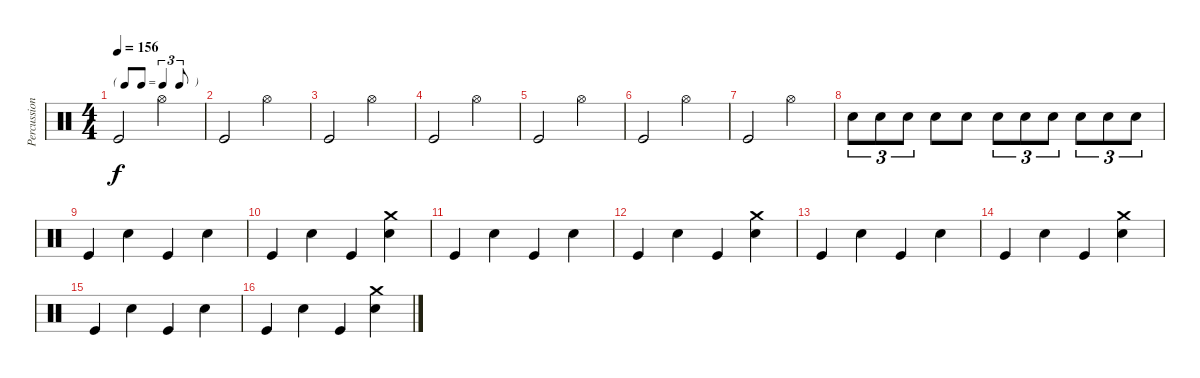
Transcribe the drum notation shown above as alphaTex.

\track ("Percussion" "Percussion") {instrument percussion}
\staff {score}
\articulation defaults
\ts (4 4)
\tf triplet8th
\tempo 156
\clef neutral
\ks c "Kick (hit)".2{dy f} "Hi-Hat (open)".2
|
"Kick (hit)".2 "Hi-Hat (open)".2 |
"Kick (hit)".2 "Hi-Hat (open)".2 |
"Kick (hit)".2 "Hi-Hat (open)".2 |
"Kick (hit)".2 "Hi-Hat (open)".2 |
"Kick (hit)".2 "Hi-Hat (open)".2 |
"Kick (hit)".2 "Hi-Hat (open)".2 |
"Snare (hit) 2".8{tu (3 2)} "Snare (hit) 2".8{tu (3 2)} "Snare (hit) 2".8{tu (3 2)} "Snare (hit) 2".8 "Snare (hit) 2".8 "Snare (hit) 2".8{tu (3 2)} "Snare (hit) 2".8{tu (3 2)} "Snare (hit) 2".8{tu (3 2)} "Snare (hit) 2".8{tu (3 2)} "Snare (hit) 2".8{tu (3 2)} "Snare (hit) 2".8{tu (3 2)} |
"Kick (hit)".4 "Snare (hit) 2".4 "Kick (hit)".4 "Snare (hit) 2".4 |
"Kick (hit)".4 "Snare (hit) 2".4 "Kick (hit)".4 ("Snare (hit) 2" "Crash medium (hit)").4 |
"Kick (hit)".4 "Snare (hit) 2".4 "Kick (hit)".4 "Snare (hit) 2".4 |
"Kick (hit)".4 "Snare (hit) 2".4 "Kick (hit)".4 ("Snare (hit) 2" "Crash medium (hit)").4 |
"Kick (hit)".4 "Snare (hit) 2".4 "Kick (hit)".4 "Snare (hit) 2".4 |
"Kick (hit)".4 "Snare (hit) 2".4 "Kick (hit)".4 ("Snare (hit) 2" "Crash medium (hit)").4 |
"Kick (hit)".4 "Snare (hit) 2".4 "Kick (hit)".4 "Snare (hit) 2".4 |
"Kick (hit)".4 "Snare (hit) 2".4 "Kick (hit)".4 ("Snare (hit) 2" "Crash medium (hit)").4
